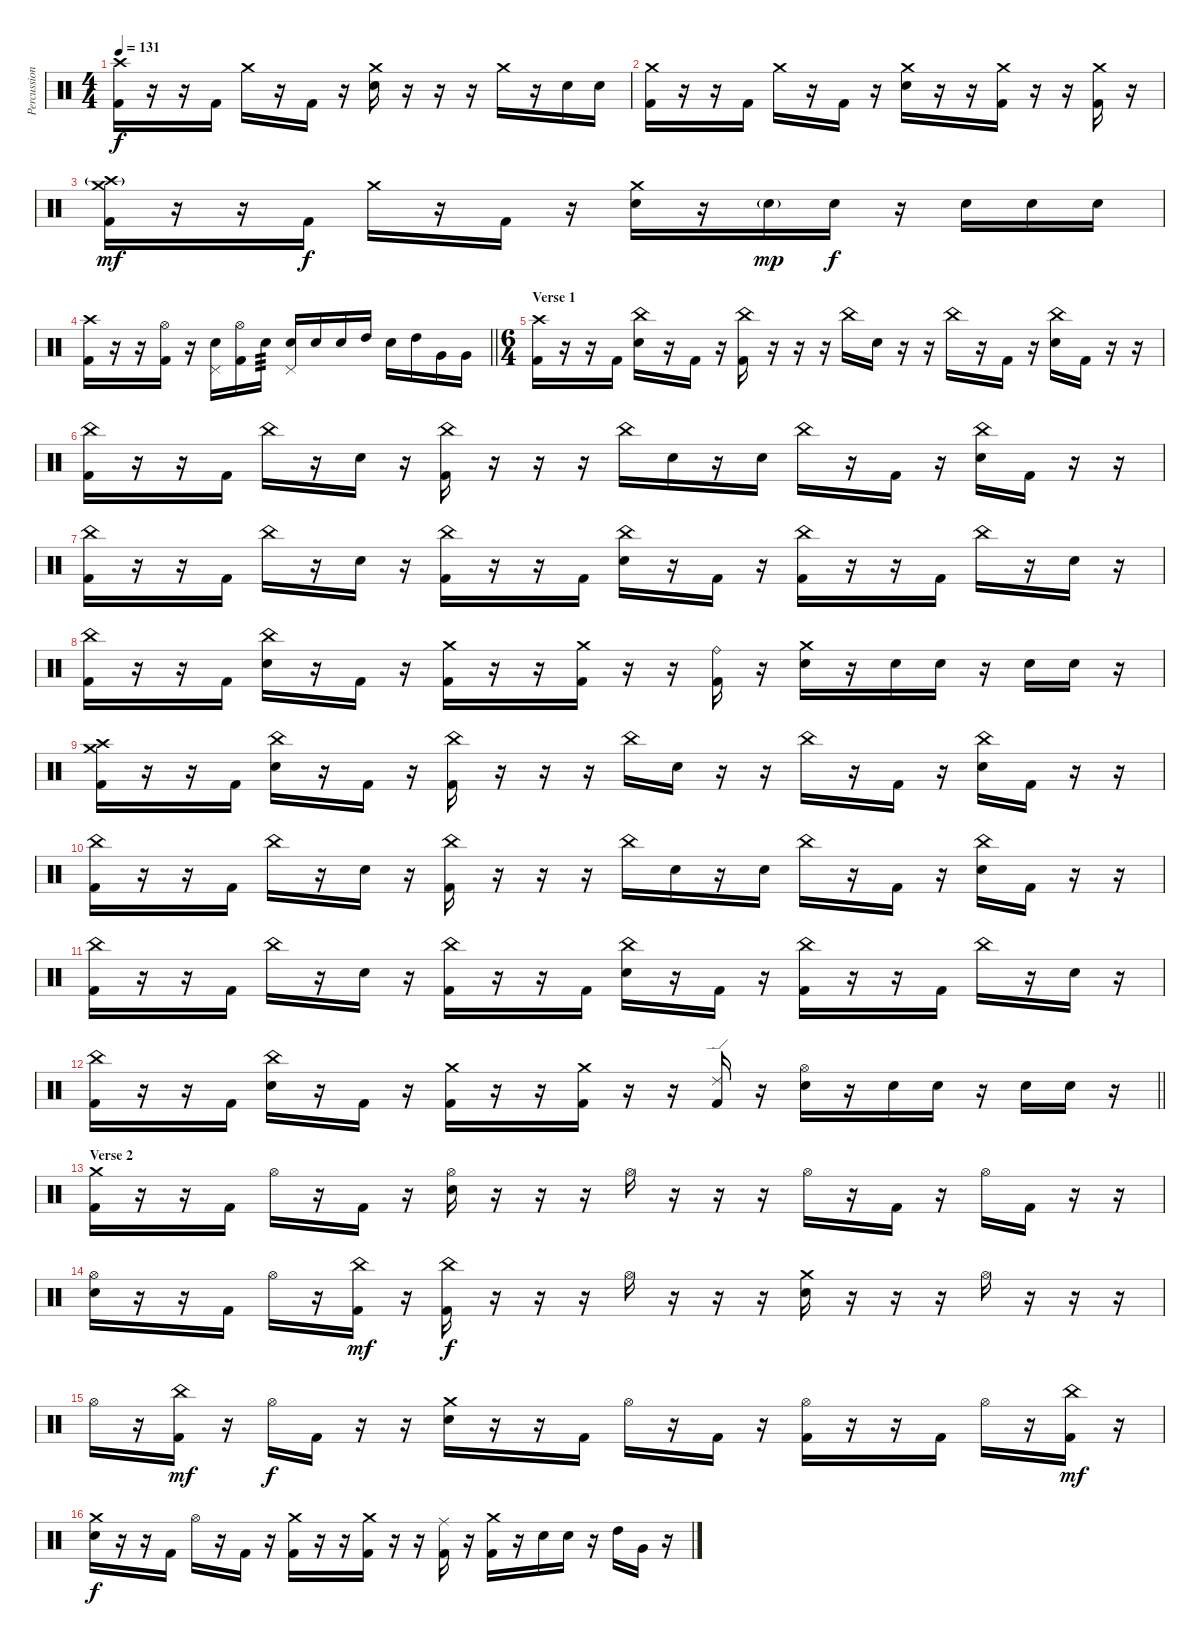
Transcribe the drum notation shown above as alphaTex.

\track ("Percussion" "Percussion") {instrument percussion}
\staff {score}
\articulation defaults
\ts (4 4)
\tempo 131
\clef neutral
\ks c
("Crash high (hit)" "Kick (hit) 2").16{dy f} r.16 r.16 "Kick (hit) 2".16 "Crash medium (hit)".16 r.16 "Kick (hit) 2".16 r.16 ("Crash medium (hit)" "Snare (hit) 2").16 r.16 r.16 r.16 "Crash medium (hit)".16 r.16 "Snare (hit) 2".16 "Snare (hit) 2".16 |
("Crash medium (hit)" "Kick (hit) 2").16 r.16 r.16 "Kick (hit) 2".16 "Crash medium (hit)".16 r.16 "Kick (hit) 2".16 r.16 ("Crash medium (hit)" "Snare (hit) 2").16 r.16 r.16 ("Crash medium (hit)" "Kick (hit) 2").16 r.16 r.16 ("Crash medium (hit)" "Kick (hit) 2").16 r.16 |
("Crash medium (hit)" "Crash high (hit)"{g} "Kick (hit) 2").16{dy mf} r.16 r.16 "Kick (hit) 2".16{dy f} "Crash medium (hit)".16 r.16 "Kick (hit) 2".16 r.16 ("Crash medium (hit)" "Snare (hit) 2").16 r.16 "Snare (hit) 2"{g}.16{dy mp} "Snare (hit) 2".16{dy f} r.16 "Snare (hit) 2".16 "Snare (hit) 2".16 "Snare (hit) 2".16 |
\barLineRight lightlight
("Crash high (hit)" "Kick (hit) 2").16 r.16 r.16 ("Hi-Hat (open)" "Kick (hit) 2").16 r.16 ("Pedal Hi-Hat (hit)" "Snare (hit) 2").16 ("Hi-Hat (open)" "Kick (hit) 2").16 "Snare (hit) 2".16{tp 3} ("Pedal Hi-Hat (hit)" "Snare (hit) 2").16 "Snare (hit) 2".16 "Snare (hit) 2".16 "High Tom (hit)".16 "Snare (hit) 2".16 "High Tom (hit)".16 "Very Low Tom (hit)".16 "Very Low Tom (hit)".16 |
\ts (6 4)
\section ("" "Verse 1")
("Crash high (hit)" "Kick (hit) 2").16 r.16 r.16 "Kick (hit) 2".16 ("China (hit)" "Snare (hit) 2").16 r.16 "Kick (hit) 2".16 r.16 ("China (hit)" "Kick (hit) 2").16 r.16 r.16 r.16 "China (hit)".16 "Snare (hit) 2".16 r.16 r.16 "China (hit)".16 r.16 "Kick (hit) 2".16 r.16 ("China (hit)" "Snare (hit) 2").16 "Kick (hit) 2".16 r.16 r.16 |
("China (hit)" "Kick (hit) 2").16 r.16 r.16 "Kick (hit) 2".16 "China (hit)".16 r.16 "Snare (hit) 2".16 r.16 ("China (hit)" "Kick (hit) 2").16 r.16 r.16 r.16 "China (hit)".16 "Snare (hit) 2".16 r.16 "Snare (hit) 2".16 "China (hit)".16 r.16 "Kick (hit) 2".16 r.16 ("China (hit)" "Snare (hit) 2").16 "Kick (hit) 2".16 r.16 r.16 |
("China (hit)" "Kick (hit) 2").16 r.16 r.16 "Kick (hit) 2".16 "China (hit)".16 r.16 "Snare (hit) 2".16 r.16 ("China (hit)" "Kick (hit) 2").16 r.16 r.16 "Kick (hit) 2".16 ("China (hit)" "Snare (hit) 2").16 r.16 "Kick (hit) 2".16 r.16 ("China (hit)" "Kick (hit) 2").16 r.16 r.16 "Kick (hit) 2".16 "China (hit)".16 r.16 "Snare (hit) 2".16 r.16 |
("China (hit)" "Kick (hit) 2").16 r.16 r.16 "Kick (hit) 2".16 ("China (hit)" "Snare (hit) 2").16 r.16 "Kick (hit) 2".16 r.16 ("Crash medium (hit)" "Kick (hit) 2").16 r.16 r.16 ("Crash medium (hit)" "Kick (hit) 2").16 r.16 r.16 ("Ride (bell)" "Kick (hit) 2").16 r.16 ("Crash medium (hit)" "Snare (hit) 2").16 r.16 "Snare (hit) 2".16 "Snare (hit) 2".16 r.16 "Snare (hit) 2".16 "Snare (hit) 2".16 r.16 |
("Crash medium (hit)" "Crash high (hit)" "Kick (hit) 2").16 r.16 r.16 "Kick (hit) 2".16 ("China (hit)" "Snare (hit) 2").16 r.16 "Kick (hit) 2".16 r.16 ("China (hit)" "Kick (hit) 2").16 r.16 r.16 r.16 "China (hit)".16 "Snare (hit) 2".16 r.16 r.16 "China (hit)".16 r.16 "Kick (hit) 2".16 r.16 ("China (hit)" "Snare (hit) 2").16 "Kick (hit) 2".16 r.16 r.16 |
("China (hit)" "Kick (hit) 2").16 r.16 r.16 "Kick (hit) 2".16 "China (hit)".16 r.16 "Snare (hit) 2".16 r.16 ("China (hit)" "Kick (hit) 2").16 r.16 r.16 r.16 "China (hit)".16 "Snare (hit) 2".16 r.16 "Snare (hit) 2".16 "China (hit)".16 r.16 "Kick (hit) 2".16 r.16 ("China (hit)" "Snare (hit) 2").16 "Kick (hit) 2".16 r.16 r.16 |
("China (hit)" "Kick (hit) 2").16 r.16 r.16 "Kick (hit) 2".16 "China (hit)".16 r.16 "Snare (hit) 2".16 r.16 ("China (hit)" "Kick (hit) 2").16 r.16 r.16 "Kick (hit) 2".16 ("China (hit)" "Snare (hit) 2").16 r.16 "Kick (hit) 2".16 r.16 ("China (hit)" "Kick (hit) 2").16 r.16 r.16 "Kick (hit) 2".16 "China (hit)".16 r.16 "Snare (hit) 2".16 r.16 |
\barLineRight lightlight
("China (hit)" "Kick (hit) 2").16 r.16 r.16 "Kick (hit) 2".16 ("China (hit)" "Snare (hit) 2").16 r.16 "Kick (hit) 2".16 r.16 ("Crash medium (hit)" "Kick (hit) 2").16 r.16 r.16 ("Crash medium (hit)" "Kick (hit) 2").16 r.16 r.16 ("Ride (edge) 2" "Kick (hit) 2").16 r.16 ("Hi-Hat (open)" "Snare (hit) 2").16 r.16 "Snare (hit) 2".16 "Snare (hit) 2".16 r.16 "Snare (hit) 2".16 "Snare (hit) 2".16 r.16 |
\section ("" "Verse 2")
("Crash medium (hit)" "Kick (hit) 2").16 r.16 r.16 "Kick (hit) 2".16 "Hi-Hat (open)".16 r.16 "Kick (hit) 2".16 r.16 ("Hi-Hat (open)" "Snare (hit) 2").16 r.16 r.16 r.16 "Hi-Hat (open)".16 r.16 r.16 r.16 "Hi-Hat (open)".16 r.16 "Kick (hit) 2".16 r.16 "Hi-Hat (open)".16 "Kick (hit) 2".16 r.16 r.16 |
("Hi-Hat (open)" "Snare (hit) 2").16 r.16 r.16 "Kick (hit) 2".16 "Hi-Hat (open)".16 r.16 ("China (hit)" "Kick (hit) 2").16{dy mf} r.16 ("China (hit)" "Kick (hit) 2").16{dy f} r.16 r.16 r.16 "Hi-Hat (open)".16 r.16 r.16 r.16 ("Crash medium (hit)" "Snare (hit) 2").16 r.16 r.16 r.16 "Hi-Hat (open)".16 r.16 r.16 r.16 |
"Hi-Hat (open)".16 r.16 ("China (hit)" "Kick (hit) 2").16{dy mf} r.16 "Hi-Hat (open)".16{dy f} "Kick (hit) 2".16 r.16 r.16 ("Crash medium (hit)" "Snare (hit) 2").16 r.16 r.16 "Kick (hit) 2".16 "Hi-Hat (open)".16 r.16 "Kick (hit) 2".16 r.16 ("Hi-Hat (open)" "Kick (hit) 2").16 r.16 r.16 "Kick (hit) 2".16 "Hi-Hat (open)".16 r.16 ("China (hit)" "Kick (hit) 2").16{dy mf} r.16 |
("Crash medium (hit)" "Snare (hit) 2").16{dy f} r.16 r.16 "Kick (hit) 2".16 "Hi-Hat (open)".16 r.16 "Kick (hit) 2".16 r.16 ("Crash medium (hit)" "Kick (hit) 2").16 r.16 r.16 ("Crash medium (hit)" "Kick (hit) 2").16 r.16 r.16 ("Ride (middle)" "Kick (hit) 2").16 r.16 ("Crash medium (hit)" "Kick (hit) 2").16 r.16 "Snare (hit) 2".16 "Snare (hit) 2".16 r.16 "High Tom (hit)".16 "Very Low Tom (hit)".16 r.16
